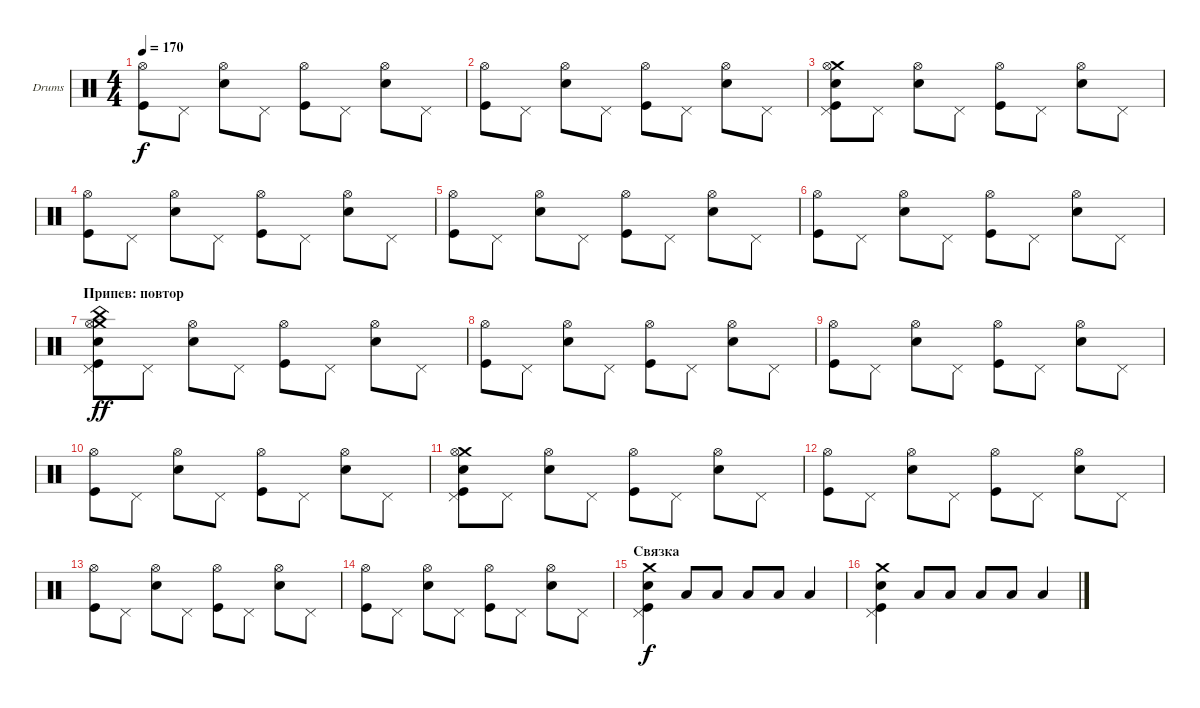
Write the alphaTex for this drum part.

\defaultSystemsLayout 4
\bracketExtendMode groupsimilarinstruments
\firstSystemTrackNameOrientation horizontal
\otherSystemsTrackNameOrientation horizontal
\track ("Е. Кулаков" "Drums") {instrument percussion}
\staff {score}
\articulation defaults
\ts (4 4)
\tempo 170
\clef neutral
\ks c
("Kick (hit)" "Hi-Hat (open)").8{dy f} "Pedal Hi-Hat (hit)".8 ("Snare (hit) 2" "Hi-Hat (open)").8 "Pedal Hi-Hat (hit)".8 ("Kick (hit)" "Hi-Hat (open)").8 "Pedal Hi-Hat (hit)".8 ("Snare (hit) 2" "Hi-Hat (open)").8 "Pedal Hi-Hat (hit)".8 |
("Kick (hit)" "Hi-Hat (open)").8 "Pedal Hi-Hat (hit)".8 ("Snare (hit) 2" "Hi-Hat (open)").8 "Pedal Hi-Hat (hit)".8 ("Kick (hit)" "Hi-Hat (open)").8 "Pedal Hi-Hat (hit)".8 ("Snare (hit) 2" "Hi-Hat (open)").8 "Pedal Hi-Hat (hit)".8 |
("Kick (hit)" "Snare (hit) 2" "Crash medium (hit)" "Pedal Hi-Hat (hit)" "Hi-Hat (open)").8 "Pedal Hi-Hat (hit)".8 ("Snare (hit) 2" "Hi-Hat (open)").8 "Pedal Hi-Hat (hit)".8 ("Kick (hit)" "Hi-Hat (open)").8 "Pedal Hi-Hat (hit)".8 ("Snare (hit) 2" "Hi-Hat (open)").8 "Pedal Hi-Hat (hit)".8 |
("Kick (hit)" "Hi-Hat (open)").8 "Pedal Hi-Hat (hit)".8 ("Snare (hit) 2" "Hi-Hat (open)").8 "Pedal Hi-Hat (hit)".8 ("Kick (hit)" "Hi-Hat (open)").8 "Pedal Hi-Hat (hit)".8 ("Snare (hit) 2" "Hi-Hat (open)").8 "Pedal Hi-Hat (hit)".8 |
("Kick (hit)" "Hi-Hat (open)").8 "Pedal Hi-Hat (hit)".8 ("Snare (hit) 2" "Hi-Hat (open)").8 "Pedal Hi-Hat (hit)".8 ("Kick (hit)" "Hi-Hat (open)").8 "Pedal Hi-Hat (hit)".8 ("Snare (hit) 2" "Hi-Hat (open)").8 "Pedal Hi-Hat (hit)".8 |
("Kick (hit)" "Hi-Hat (open)").8 "Pedal Hi-Hat (hit)".8 ("Snare (hit) 2" "Hi-Hat (open)").8 "Pedal Hi-Hat (hit)".8 ("Kick (hit)" "Hi-Hat (open)").8 "Pedal Hi-Hat (hit)".8 ("Snare (hit) 2" "Hi-Hat (open)").8 "Pedal Hi-Hat (hit)".8 |
\section ("" "Припев: повтор")
("Kick (hit)" "Snare (hit) 2" "Crash medium (hit)" "Pedal Hi-Hat (hit)" "Hi-Hat (open)" "China (hit)").8{dy ff} "Pedal Hi-Hat (hit)".8 ("Snare (hit) 2" "Hi-Hat (open)").8 "Pedal Hi-Hat (hit)".8 ("Kick (hit)" "Hi-Hat (open)").8 "Pedal Hi-Hat (hit)".8 ("Snare (hit) 2" "Hi-Hat (open)").8 "Pedal Hi-Hat (hit)".8 |
("Kick (hit)" "Hi-Hat (open)").8 "Pedal Hi-Hat (hit)".8 ("Snare (hit) 2" "Hi-Hat (open)").8 "Pedal Hi-Hat (hit)".8 ("Kick (hit)" "Hi-Hat (open)").8 "Pedal Hi-Hat (hit)".8 ("Snare (hit) 2" "Hi-Hat (open)").8 "Pedal Hi-Hat (hit)".8 |
("Kick (hit)" "Hi-Hat (open)").8 "Pedal Hi-Hat (hit)".8 ("Snare (hit) 2" "Hi-Hat (open)").8 "Pedal Hi-Hat (hit)".8 ("Kick (hit)" "Hi-Hat (open)").8 "Pedal Hi-Hat (hit)".8 ("Snare (hit) 2" "Hi-Hat (open)").8 "Pedal Hi-Hat (hit)".8 |
("Kick (hit)" "Hi-Hat (open)").8 "Pedal Hi-Hat (hit)".8 ("Snare (hit) 2" "Hi-Hat (open)").8 "Pedal Hi-Hat (hit)".8 ("Kick (hit)" "Hi-Hat (open)").8 "Pedal Hi-Hat (hit)".8 ("Snare (hit) 2" "Hi-Hat (open)").8 "Pedal Hi-Hat (hit)".8 |
("Kick (hit)" "Snare (hit) 2" "Crash medium (hit)" "Pedal Hi-Hat (hit)" "Hi-Hat (open)").8 "Pedal Hi-Hat (hit)".8 ("Snare (hit) 2" "Hi-Hat (open)").8 "Pedal Hi-Hat (hit)".8 ("Kick (hit)" "Hi-Hat (open)").8 "Pedal Hi-Hat (hit)".8 ("Snare (hit) 2" "Hi-Hat (open)").8 "Pedal Hi-Hat (hit)".8 |
("Kick (hit)" "Hi-Hat (open)").8 "Pedal Hi-Hat (hit)".8 ("Snare (hit) 2" "Hi-Hat (open)").8 "Pedal Hi-Hat (hit)".8 ("Kick (hit)" "Hi-Hat (open)").8 "Pedal Hi-Hat (hit)".8 ("Snare (hit) 2" "Hi-Hat (open)").8 "Pedal Hi-Hat (hit)".8 |
("Kick (hit)" "Hi-Hat (open)").8 "Pedal Hi-Hat (hit)".8 ("Snare (hit) 2" "Hi-Hat (open)").8 "Pedal Hi-Hat (hit)".8 ("Kick (hit)" "Hi-Hat (open)").8 "Pedal Hi-Hat (hit)".8 ("Snare (hit) 2" "Hi-Hat (open)").8 "Pedal Hi-Hat (hit)".8 |
("Kick (hit)" "Hi-Hat (open)").8 "Pedal Hi-Hat (hit)".8 ("Snare (hit) 2" "Hi-Hat (open)").8 "Pedal Hi-Hat (hit)".8 ("Kick (hit)" "Hi-Hat (open)").8 "Pedal Hi-Hat (hit)".8 ("Snare (hit) 2" "Hi-Hat (open)").8 "Pedal Hi-Hat (hit)".8 |
\section ("" "Связка")
("Pedal Hi-Hat (hit)" "Kick (hit)" "Snare (hit) 2" "Crash medium (hit)").4{dy f} "Low Tom (hit)".8 "Low Tom (hit)".8 "Low Tom (hit)".8 "Low Tom (hit)".8 "Low Tom (hit)".4 |
("Pedal Hi-Hat (hit)" "Kick (hit)" "Snare (hit) 2" "Crash medium (hit)").4 "Low Tom (hit)".8 "Low Tom (hit)".8 "Low Tom (hit)".8 "Low Tom (hit)".8 "Low Tom (hit)".4
